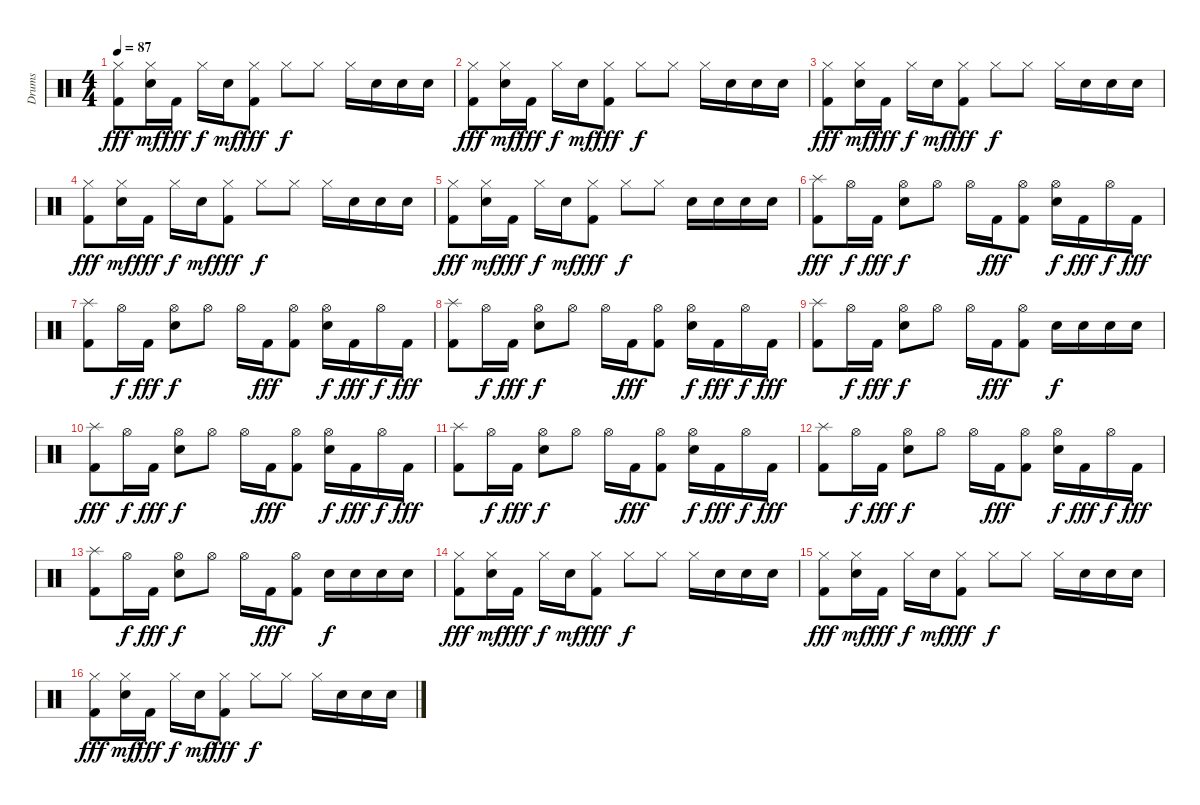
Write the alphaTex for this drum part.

\track ("Drums" "Drums") {instrument percussion}
\staff {score}
\articulation defaults
\ts (4 4)
\tempo 87
\clef neutral
\ks c
("Hi-Hat (closed)" "Kick (hit) 2").8{dy fff} ("Hi-Hat (closed)" "Snare (hit) 2").16{dy mf} "Kick (hit) 2".16{dy fff} "Hi-Hat (closed)".16{dy f} "Snare (hit) 2".16{dy mf} ("Hi-Hat (closed)" "Kick (hit) 2").8{dy fff} "Hi-Hat (closed)".8{dy f} "Hi-Hat (closed)".8 "Hi-Hat (closed)".16 "Snare (hit) 2".16 "Snare (hit) 2".16 "Snare (hit) 2".16 |
("Hi-Hat (closed)" "Kick (hit) 2").8{dy fff} ("Hi-Hat (closed)" "Snare (hit) 2").16{dy mf} "Kick (hit) 2".16{dy fff} "Hi-Hat (closed)".16{dy f} "Snare (hit) 2".16{dy mf} ("Hi-Hat (closed)" "Kick (hit) 2").8{dy fff} "Hi-Hat (closed)".8{dy f} "Hi-Hat (closed)".8 "Hi-Hat (closed)".16 "Snare (hit) 2".16 "Snare (hit) 2".16 "Snare (hit) 2".16 |
("Hi-Hat (closed)" "Kick (hit) 2").8{dy fff} ("Hi-Hat (closed)" "Snare (hit) 2").16{dy mf} "Kick (hit) 2".16{dy fff} "Hi-Hat (closed)".16{dy f} "Snare (hit) 2".16{dy mf} ("Hi-Hat (closed)" "Kick (hit) 2").8{dy fff} "Hi-Hat (closed)".8{dy f} "Hi-Hat (closed)".8 "Hi-Hat (closed)".16 "Snare (hit) 2".16 "Snare (hit) 2".16 "Snare (hit) 2".16 |
("Hi-Hat (closed)" "Kick (hit) 2").8{dy fff} ("Hi-Hat (closed)" "Snare (hit) 2").16{dy mf} "Kick (hit) 2".16{dy fff} "Hi-Hat (closed)".16{dy f} "Snare (hit) 2".16{dy mf} ("Hi-Hat (closed)" "Kick (hit) 2").8{dy fff} "Hi-Hat (closed)".8{dy f} "Hi-Hat (closed)".8 "Hi-Hat (closed)".16 "Snare (hit) 2".16 "Snare (hit) 2".16 "Snare (hit) 2".16 |
("Hi-Hat (closed)" "Kick (hit) 2").8{dy fff} ("Hi-Hat (closed)" "Snare (hit) 2").16{dy mf} "Kick (hit) 2".16{dy fff} "Hi-Hat (closed)".16{dy f} "Snare (hit) 2".16{dy mf} ("Hi-Hat (closed)" "Kick (hit) 2").8{dy fff} "Hi-Hat (closed)".8{dy f} "Hi-Hat (closed)".8 "Snare (hit) 2".16{volume 13} "Snare (hit) 2".16 "Snare (hit) 2".16 "Snare (hit) 2".16 |
("Splash (hit)" "Kick (hit) 2").8{dy fff} "Hi-Hat (open)".16{dy f} "Kick (hit) 2".16{dy fff} ("Hi-Hat (open)" "Snare (hit) 2").8{dy f} "Hi-Hat (open)".8 "Hi-Hat (open)".16 "Kick (hit) 2".16{dy fff} ("Hi-Hat (open)" "Kick (hit) 2").8 ("Hi-Hat (open)" "Snare (hit) 2").16{dy f} "Kick (hit) 2".16{dy fff} "Hi-Hat (open)".16{dy f} "Kick (hit) 2".16{dy fff} |
("Splash (hit)" "Kick (hit) 2").8 "Hi-Hat (open)".16{dy f} "Kick (hit) 2".16{dy fff} ("Hi-Hat (open)" "Snare (hit) 2").8{dy f} "Hi-Hat (open)".8 "Hi-Hat (open)".16 "Kick (hit) 2".16{dy fff} ("Hi-Hat (open)" "Kick (hit) 2").8 ("Hi-Hat (open)" "Snare (hit) 2").16{dy f} "Kick (hit) 2".16{dy fff} "Hi-Hat (open)".16{dy f} "Kick (hit) 2".16{dy fff} |
("Splash (hit)" "Kick (hit) 2").8 "Hi-Hat (open)".16{dy f} "Kick (hit) 2".16{dy fff} ("Hi-Hat (open)" "Snare (hit) 2").8{dy f} "Hi-Hat (open)".8 "Hi-Hat (open)".16 "Kick (hit) 2".16{dy fff} ("Hi-Hat (open)" "Kick (hit) 2").8 ("Hi-Hat (open)" "Snare (hit) 2").16{dy f} "Kick (hit) 2".16{dy fff} "Hi-Hat (open)".16{dy f} "Kick (hit) 2".16{dy fff} |
("Splash (hit)" "Kick (hit) 2").8 "Hi-Hat (open)".16{dy f} "Kick (hit) 2".16{dy fff} ("Hi-Hat (open)" "Snare (hit) 2").8{dy f} "Hi-Hat (open)".8 "Hi-Hat (open)".16 "Kick (hit) 2".16{dy fff} ("Hi-Hat (open)" "Kick (hit) 2").8 "Snare (hit) 2".16{dy f} "Snare (hit) 2".16 "Snare (hit) 2".16 "Snare (hit) 2".16 |
("Splash (hit)" "Kick (hit) 2").8{dy fff} "Hi-Hat (open)".16{dy f} "Kick (hit) 2".16{dy fff} ("Hi-Hat (open)" "Snare (hit) 2").8{dy f} "Hi-Hat (open)".8 "Hi-Hat (open)".16 "Kick (hit) 2".16{dy fff} ("Hi-Hat (open)" "Kick (hit) 2").8 ("Hi-Hat (open)" "Snare (hit) 2").16{dy f} "Kick (hit) 2".16{dy fff} "Hi-Hat (open)".16{dy f} "Kick (hit) 2".16{dy fff} |
("Splash (hit)" "Kick (hit) 2").8 "Hi-Hat (open)".16{dy f} "Kick (hit) 2".16{dy fff} ("Hi-Hat (open)" "Snare (hit) 2").8{dy f} "Hi-Hat (open)".8 "Hi-Hat (open)".16 "Kick (hit) 2".16{dy fff} ("Hi-Hat (open)" "Kick (hit) 2").8 ("Hi-Hat (open)" "Snare (hit) 2").16{dy f} "Kick (hit) 2".16{dy fff} "Hi-Hat (open)".16{dy f} "Kick (hit) 2".16{dy fff} |
("Splash (hit)" "Kick (hit) 2").8 "Hi-Hat (open)".16{dy f} "Kick (hit) 2".16{dy fff} ("Hi-Hat (open)" "Snare (hit) 2").8{dy f} "Hi-Hat (open)".8 "Hi-Hat (open)".16 "Kick (hit) 2".16{dy fff} ("Hi-Hat (open)" "Kick (hit) 2").8 ("Hi-Hat (open)" "Snare (hit) 2").16{dy f} "Kick (hit) 2".16{dy fff} "Hi-Hat (open)".16{dy f} "Kick (hit) 2".16{dy fff} |
("Splash (hit)" "Kick (hit) 2").8 "Hi-Hat (open)".16{dy f} "Kick (hit) 2".16{dy fff} ("Hi-Hat (open)" "Snare (hit) 2").8{dy f} "Hi-Hat (open)".8 "Hi-Hat (open)".16 "Kick (hit) 2".16{dy fff} ("Hi-Hat (open)" "Kick (hit) 2").8 "Snare (hit) 2".16{dy f} "Snare (hit) 2".16 "Snare (hit) 2".16 "Snare (hit) 2".16 |
("Hi-Hat (closed)" "Kick (hit) 2").8{dy fff volume 10} ("Hi-Hat (closed)" "Snare (hit) 2").16{dy mf} "Kick (hit) 2".16{dy fff} "Hi-Hat (closed)".16{dy f} "Snare (hit) 2".16{dy mf} ("Hi-Hat (closed)" "Kick (hit) 2").8{dy fff} "Hi-Hat (closed)".8{dy f} "Hi-Hat (closed)".8 "Hi-Hat (closed)".16 "Snare (hit) 2".16 "Snare (hit) 2".16 "Snare (hit) 2".16 |
("Hi-Hat (closed)" "Kick (hit) 2").8{dy fff} ("Hi-Hat (closed)" "Snare (hit) 2").16{dy mf} "Kick (hit) 2".16{dy fff} "Hi-Hat (closed)".16{dy f} "Snare (hit) 2".16{dy mf} ("Hi-Hat (closed)" "Kick (hit) 2").8{dy fff} "Hi-Hat (closed)".8{dy f} "Hi-Hat (closed)".8 "Hi-Hat (closed)".16 "Snare (hit) 2".16 "Snare (hit) 2".16 "Snare (hit) 2".16 |
("Hi-Hat (closed)" "Kick (hit) 2").8{dy fff} ("Hi-Hat (closed)" "Snare (hit) 2").16{dy mf} "Kick (hit) 2".16{dy fff} "Hi-Hat (closed)".16{dy f} "Snare (hit) 2".16{dy mf} ("Hi-Hat (closed)" "Kick (hit) 2").8{dy fff} "Hi-Hat (closed)".8{dy f} "Hi-Hat (closed)".8 "Hi-Hat (closed)".16 "Snare (hit) 2".16 "Snare (hit) 2".16 "Snare (hit) 2".16
